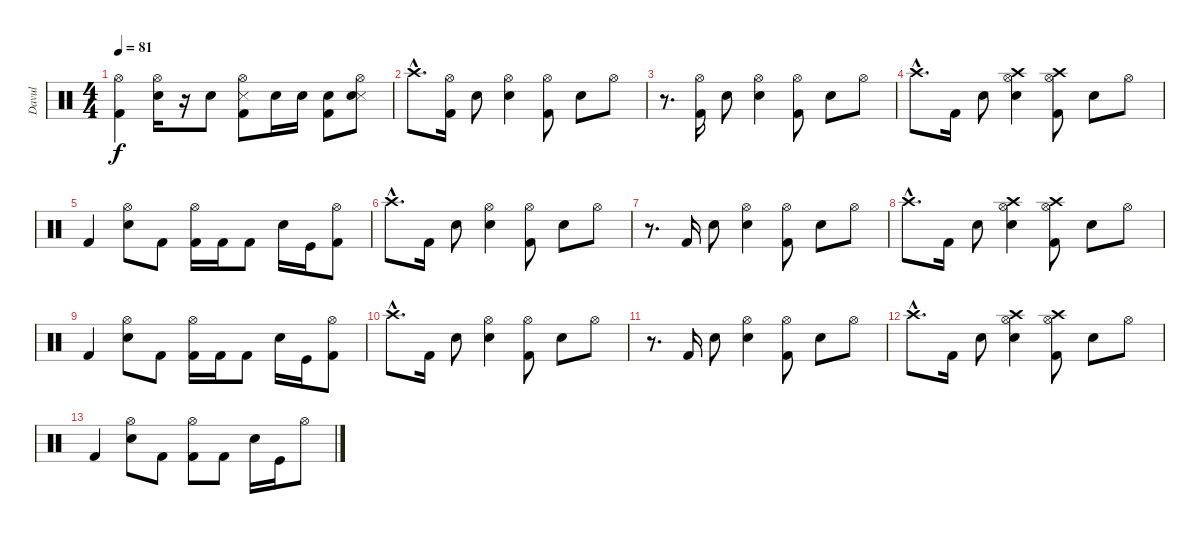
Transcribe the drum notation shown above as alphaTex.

\track ("Davul" "Davul") {instrument percussion}
\staff {score}
\articulation defaults
\ts (4 4)
\tempo 81
\clef neutral
\ks c
("Hi-Hat (open)" "Kick (hit) 2").4{dy f} ("Hi-Hat (open)" "Snare (hit) 2").16 r.16 "Snare (hit) 2".8 ("Hi-Hat (open)" "Snare (side stick) 3" "Kick (hit) 2").8 "Snare (hit) 2".16 "Snare (hit) 2".16 ("Snare (hit) 2" "Kick (hit) 2").8 ("Hi-Hat (open)" "Snare (side stick) 3" "Snare (hit) 2").8 |
"Crash high (hit)"{hac}.8{d} ("Hi-Hat (open)" "Kick (hit) 2").16 "Snare (hit) 2".8 ("Hi-Hat (open)" "Snare (hit) 2").4 ("Hi-Hat (open)" "Kick (hit) 2").8 "Snare (hit) 2".8 "Hi-Hat (open)".8 |
r.8{d} ("Hi-Hat (open)" "Kick (hit) 2").16 "Snare (hit) 2".8 ("Hi-Hat (open)" "Snare (hit) 2").4 ("Hi-Hat (open)" "Kick (hit) 2").8 "Snare (hit) 2".8 "Hi-Hat (open)".8 |
"Crash high (hit)"{hac}.8{d} "Kick (hit) 2".16 "Snare (hit) 2".8 ("Hi-Hat (open)" "Snare (hit) 2" "Crash high (hit)").4 ("Hi-Hat (open)" "Crash high (hit)" "Kick (hit) 2").8 "Snare (hit) 2".8 "Hi-Hat (open)".8 |
"Kick (hit) 2".4 ("Hi-Hat (open)" "Snare (hit) 2").8 "Kick (hit) 2".8 ("Hi-Hat (open)" "Kick (hit) 2").16 "Kick (hit) 2".16 "Kick (hit) 2".8 "Snare (hit) 2".16 "Kick (hit)".16 ("Hi-Hat (open)" "Kick (hit) 2").8 |
"Crash high (hit)"{hac}.8{d} "Kick (hit) 2".16 "Snare (hit) 2".8 ("Hi-Hat (open)" "Snare (hit) 2").4 ("Hi-Hat (open)" "Kick (hit) 2").8 "Snare (hit) 2".8 "Hi-Hat (open)".8 |
r.8{d} "Kick (hit) 2".16 "Snare (hit) 2".8 ("Hi-Hat (open)" "Snare (hit) 2").4 ("Hi-Hat (open)" "Kick (hit) 2").8 "Snare (hit) 2".8 "Hi-Hat (open)".8 |
"Crash high (hit)"{hac}.8{d} "Kick (hit) 2".16 "Snare (hit) 2".8 ("Hi-Hat (open)" "Snare (hit) 2" "Crash high (hit)").4 ("Hi-Hat (open)" "Crash high (hit)" "Kick (hit) 2").8 "Snare (hit) 2".8 "Hi-Hat (open)".8 |
"Kick (hit) 2".4 ("Hi-Hat (open)" "Snare (hit) 2").8 "Kick (hit) 2".8 ("Hi-Hat (open)" "Kick (hit) 2").16 "Kick (hit) 2".16 "Kick (hit) 2".8 "Snare (hit) 2".16 "Kick (hit)".16 ("Hi-Hat (open)" "Kick (hit) 2").8 |
"Crash high (hit)"{hac}.8{d} "Kick (hit) 2".16 "Snare (hit) 2".8 ("Hi-Hat (open)" "Snare (hit) 2").4 ("Hi-Hat (open)" "Kick (hit) 2").8 "Snare (hit) 2".8 "Hi-Hat (open)".8 |
r.8{d} "Kick (hit) 2".16 "Snare (hit) 2".8 ("Hi-Hat (open)" "Snare (hit) 2").4 ("Hi-Hat (open)" "Kick (hit) 2").8 "Snare (hit) 2".8 "Hi-Hat (open)".8 |
"Crash high (hit)"{hac}.8{d} "Kick (hit) 2".16 "Snare (hit) 2".8 ("Hi-Hat (open)" "Snare (hit) 2" "Crash high (hit)").4 ("Hi-Hat (open)" "Crash high (hit)" "Kick (hit) 2").8 "Snare (hit) 2".8 "Hi-Hat (open)".8 |
"Kick (hit) 2".4 ("Hi-Hat (open)" "Snare (hit) 2").8 "Kick (hit) 2".8 ("Hi-Hat (open)" "Kick (hit) 2").8 "Kick (hit) 2".8 "Snare (hit) 2".16 "Kick (hit)".16 "Hi-Hat (open)".8
